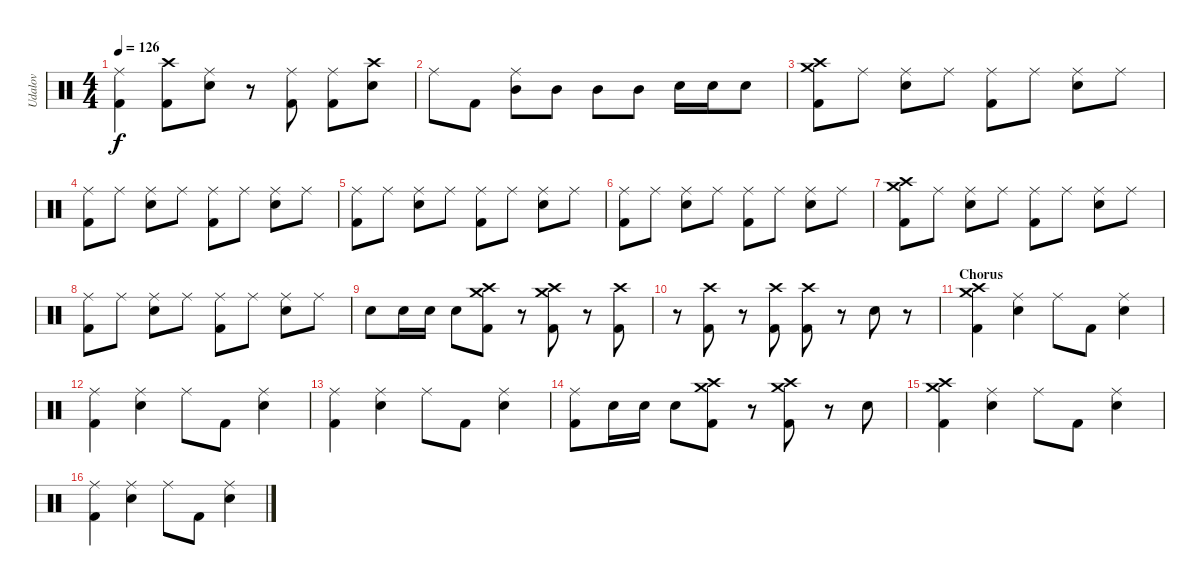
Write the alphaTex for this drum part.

\track ("Udalov" "Udalov") {instrument percussion}
\staff {score}
\articulation defaults
\ts (4 4)
\tempo 126
\clef neutral
\ks c
("Kick (hit) 2" "Ride (middle)").4{dy f} ("Kick (hit) 2" "Crash high (hit)").8 ("Snare (hit) 2" "Ride (middle)").8 r.8 ("Kick (hit) 2" "Ride (middle)").8 ("Kick (hit) 2" "Ride (middle)").8 ("Snare (hit) 2" "Crash high (hit)").8 |
"Ride (middle)".8 "Kick (hit) 2".8 ("Mid Tom (hit)" "Ride (middle)").8 "Mid Tom (hit)".8 "Mid Tom (hit)".8 "Mid Tom (hit)".8 "Electric Snare (hit)".16 "Electric Snare (hit)".16 "Electric Snare (hit)".8 |
("Kick (hit) 2" "Crash medium (hit)" "Crash high (hit)").8 "Ride (middle)".8 ("Snare (hit) 2" "Ride (middle)").8 "Ride (middle)".8 ("Kick (hit) 2" "Ride (middle)").8 "Ride (middle)".8 ("Snare (hit) 2" "Ride (middle)").8 "Ride (middle)".8 |
("Kick (hit) 2" "Ride (middle)").8 "Ride (middle)".8 ("Snare (hit) 2" "Ride (middle)").8 "Ride (middle)".8 ("Kick (hit) 2" "Ride (middle)").8 "Ride (middle)".8 ("Snare (hit) 2" "Ride (middle)").8 "Ride (middle)".8 |
("Kick (hit) 2" "Ride (middle)").8 "Ride (middle)".8 ("Snare (hit) 2" "Ride (middle)").8 "Ride (middle)".8 ("Kick (hit) 2" "Ride (middle)").8 "Ride (middle)".8 ("Snare (hit) 2" "Ride (middle)").8 "Ride (middle)".8 |
("Kick (hit) 2" "Ride (middle)").8 "Ride (middle)".8 ("Snare (hit) 2" "Ride (middle)").8 "Ride (middle)".8 ("Kick (hit) 2" "Ride (middle)").8 "Ride (middle)".8 ("Snare (hit) 2" "Ride (middle)").8 "Ride (middle)".8 |
("Kick (hit) 2" "Crash medium (hit)" "Crash high (hit)").8 "Ride (middle)".8 ("Snare (hit) 2" "Ride (middle)").8 "Ride (middle)".8 ("Kick (hit) 2" "Ride (middle)").8 "Ride (middle)".8 ("Snare (hit) 2" "Ride (middle)").8 "Ride (middle)".8 |
("Kick (hit) 2" "Ride (middle)").8 "Ride (middle)".8 ("Snare (hit) 2" "Ride (middle)").8 "Ride (middle)".8 ("Kick (hit) 2" "Ride (middle)").8 "Ride (middle)".8 ("Snare (hit) 2" "Ride (middle)").8 "Ride (middle)".8 |
"Snare (hit) 2".8 "Snare (hit) 2".16 "Snare (hit) 2".16 "Snare (hit) 2".8 ("Kick (hit) 2" "Crash medium (hit)" "Crash high (hit)").8 r.8 ("Kick (hit) 2" "Crash high (hit)" "Crash medium (hit)").8 r.8 ("Kick (hit) 2" "Crash high (hit)").8 |
r.8 ("Kick (hit) 2" "Crash high (hit)").8 r.8 ("Kick (hit) 2" "Crash high (hit)").8 ("Kick (hit) 2" "Crash high (hit)").8 r.8 "Snare (hit) 2".8 r.8 |
\section ("" "Chorus")
("Kick (hit) 2" "Crash high (hit)" "Crash medium (hit)").4 ("Snare (hit) 2" "Ride (middle)").4 "Ride (middle)".8 "Kick (hit) 2".8 ("Snare (hit) 2" "Ride (middle)").4 |
("Kick (hit) 2" "Ride (middle)").4 ("Snare (hit) 2" "Ride (middle)").4 "Ride (middle)".8 "Kick (hit) 2".8 ("Snare (hit) 2" "Ride (middle)").4 |
("Kick (hit) 2" "Ride (middle)").4 ("Snare (hit) 2" "Ride (middle)").4 "Ride (middle)".8 "Kick (hit) 2".8 ("Snare (hit) 2" "Ride (middle)").4 |
("Kick (hit) 2" "Ride (middle)").8 "Snare (hit) 2".16 "Snare (hit) 2".16 "Snare (hit) 2".8 ("Kick (hit) 2" "Crash high (hit)" "Crash medium (hit)").8 r.8 ("Kick (hit) 2" "Crash high (hit)" "Crash medium (hit)").8 r.8 "Snare (hit) 2".8 |
("Kick (hit) 2" "Crash high (hit)" "Crash medium (hit)").4 ("Snare (hit) 2" "Ride (middle)").4 "Ride (middle)".8 "Kick (hit) 2".8 ("Snare (hit) 2" "Ride (middle)").4 |
("Kick (hit) 2" "Ride (middle)").4 ("Snare (hit) 2" "Ride (middle)").4 "Ride (middle)".8 "Kick (hit) 2".8 ("Snare (hit) 2" "Ride (middle)").4
